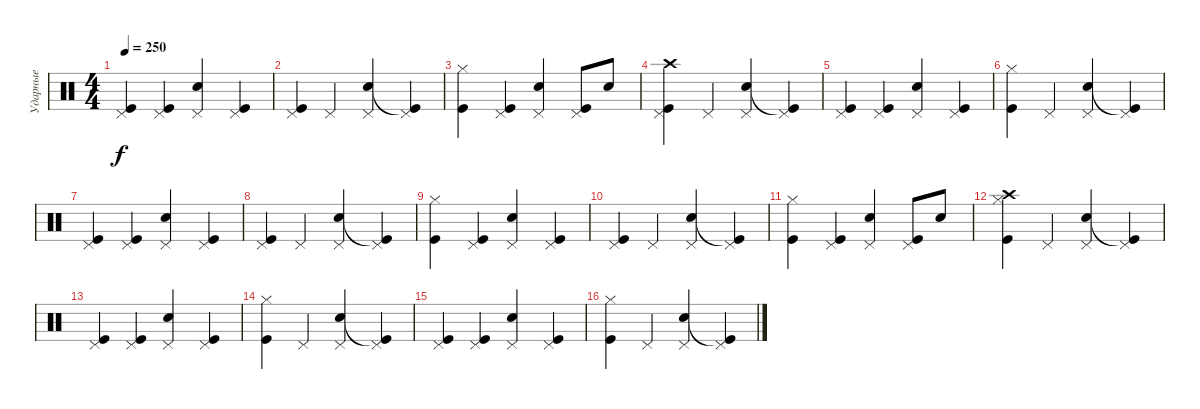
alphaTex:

\track ("Ударные" "Ударные") {instrument percussion}
\staff {score}
\articulation defaults
\ts (4 4)
\tempo 250
\clef neutral
\ks c
("Kick (hit)" "Pedal Hi-Hat (hit)").4{dy f} ("Kick (hit)" "Pedal Hi-Hat (hit)").4 ("Electric Snare (hit)" "Pedal Hi-Hat (hit)").4 ("Kick (hit)" "Pedal Hi-Hat (hit)").4 |
("Kick (hit)" "Pedal Hi-Hat (hit)").4 "Pedal Hi-Hat (hit)".4 ("Electric Snare (hit)" "Pedal Hi-Hat (hit)").4 ("Kick (hit)"{t} "Pedal Hi-Hat (hit)").4 |
("Kick (hit)" "Hi-Hat (closed)").4 ("Kick (hit)" "Pedal Hi-Hat (hit)").4 ("Electric Snare (hit)" "Pedal Hi-Hat (hit)").4 ("Kick (hit)" "Pedal Hi-Hat (hit)").8 "Electric Snare (hit)".8 |
("Kick (hit)" "Pedal Hi-Hat (hit)" "Crash high (hit)").4 "Pedal Hi-Hat (hit)".4 ("Electric Snare (hit)" "Pedal Hi-Hat (hit)").4 ("Kick (hit)"{t} "Pedal Hi-Hat (hit)").4 |
("Kick (hit)" "Pedal Hi-Hat (hit)").4 ("Kick (hit)" "Pedal Hi-Hat (hit)").4 ("Electric Snare (hit)" "Pedal Hi-Hat (hit)").4 ("Kick (hit)" "Pedal Hi-Hat (hit)").4 |
("Kick (hit)" "Hi-Hat (closed)").4 "Pedal Hi-Hat (hit)".4 ("Electric Snare (hit)" "Pedal Hi-Hat (hit)").4 ("Kick (hit)"{t} "Pedal Hi-Hat (hit)").4 |
("Kick (hit)" "Pedal Hi-Hat (hit)").4 ("Kick (hit)" "Pedal Hi-Hat (hit)").4 ("Electric Snare (hit)" "Pedal Hi-Hat (hit)").4 ("Kick (hit)" "Pedal Hi-Hat (hit)").4 |
("Kick (hit)" "Pedal Hi-Hat (hit)").4 "Pedal Hi-Hat (hit)".4 ("Electric Snare (hit)" "Pedal Hi-Hat (hit)").4 ("Kick (hit)"{t} "Pedal Hi-Hat (hit)").4 |
("Kick (hit)" "Hi-Hat (closed)").4 ("Kick (hit)" "Pedal Hi-Hat (hit)").4 ("Electric Snare (hit)" "Pedal Hi-Hat (hit)").4 ("Kick (hit)" "Pedal Hi-Hat (hit)").4 |
("Kick (hit)" "Pedal Hi-Hat (hit)").4 "Pedal Hi-Hat (hit)".4 ("Electric Snare (hit)" "Pedal Hi-Hat (hit)").4 ("Kick (hit)"{t} "Pedal Hi-Hat (hit)").4 |
("Kick (hit)" "Hi-Hat (closed)").4 ("Kick (hit)" "Pedal Hi-Hat (hit)").4 ("Electric Snare (hit)" "Pedal Hi-Hat (hit)").4 ("Kick (hit)" "Pedal Hi-Hat (hit)").8 "Electric Snare (hit)".8 |
("Kick (hit)" "Hi-Hat (closed)" "Crash high (hit)").4 "Pedal Hi-Hat (hit)".4 ("Electric Snare (hit)" "Pedal Hi-Hat (hit)").4 ("Kick (hit)"{t} "Pedal Hi-Hat (hit)").4 |
("Kick (hit)" "Pedal Hi-Hat (hit)").4 ("Kick (hit)" "Pedal Hi-Hat (hit)").4 ("Electric Snare (hit)" "Pedal Hi-Hat (hit)").4 ("Kick (hit)" "Pedal Hi-Hat (hit)").4 |
("Kick (hit)" "Hi-Hat (closed)").4 "Pedal Hi-Hat (hit)".4 ("Electric Snare (hit)" "Pedal Hi-Hat (hit)").4 ("Kick (hit)"{t} "Pedal Hi-Hat (hit)").4 |
("Kick (hit)" "Pedal Hi-Hat (hit)").4 ("Kick (hit)" "Pedal Hi-Hat (hit)").4 ("Electric Snare (hit)" "Pedal Hi-Hat (hit)").4 ("Kick (hit)" "Pedal Hi-Hat (hit)").4 |
("Kick (hit)" "Hi-Hat (closed)").4 "Pedal Hi-Hat (hit)".4 ("Electric Snare (hit)" "Pedal Hi-Hat (hit)").4 ("Kick (hit)"{t} "Pedal Hi-Hat (hit)").4
